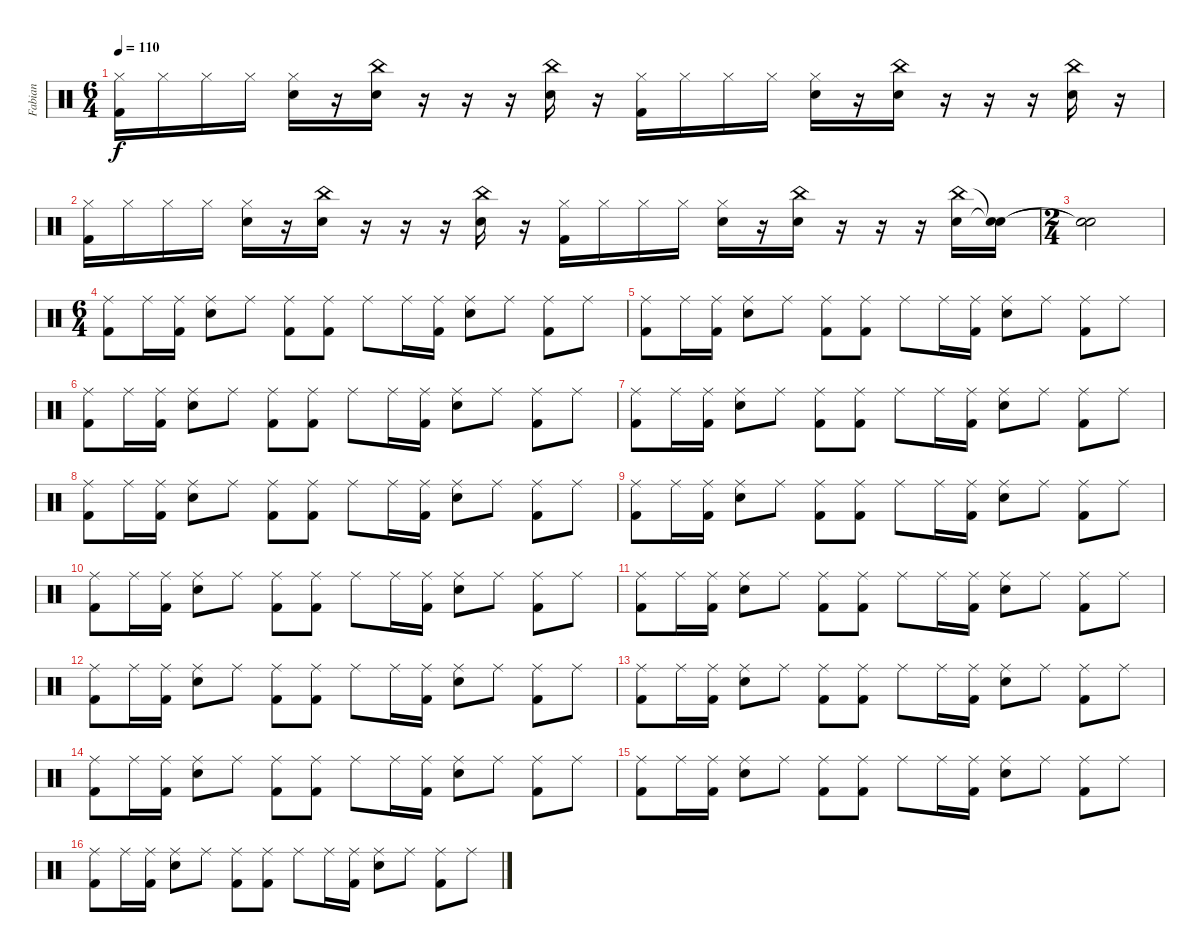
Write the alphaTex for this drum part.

\track ("Fabian" "Fabian") {instrument percussion}
\staff {score}
\articulation defaults
\ts (6 4)
\tempo 110
\clef neutral
\ks c
("Hi-Hat (closed)" "Kick (hit) 2").16{dy f} "Hi-Hat (closed)".16 "Hi-Hat (closed)".16 "Hi-Hat (closed)".16 ("Hi-Hat (closed)" "Snare (hit) 2").16 r.16 ("China (hit)" "Snare (hit) 2").16 r.16 r.16 r.16 ("China (hit)" "Snare (hit) 2").16 r.16 ("Hi-Hat (closed)" "Kick (hit) 2").16 "Hi-Hat (closed)".16 "Hi-Hat (closed)".16 "Hi-Hat (closed)".16 ("Hi-Hat (closed)" "Snare (hit) 2").16 r.16 ("China (hit)" "Snare (hit) 2").16 r.16 r.16 r.16 ("China (hit)" "Snare (hit) 2").16 r.16 |
("Hi-Hat (closed)" "Kick (hit) 2").16 "Hi-Hat (closed)".16 "Hi-Hat (closed)".16 "Hi-Hat (closed)".16 ("Hi-Hat (closed)" "Snare (hit) 2").16 r.16 ("China (hit)" "Snare (hit) 2").16 r.16 r.16 r.16 ("China (hit)" "Snare (hit) 2").16 r.16 ("Hi-Hat (closed)" "Kick (hit) 2").16 "Hi-Hat (closed)".16 "Hi-Hat (closed)".16 "Hi-Hat (closed)".16 ("Hi-Hat (closed)" "Snare (hit) 2").16 r.16 ("China (hit)" "Snare (hit) 2").16 r.16 r.16 r.16 ("China (hit)" "Snare (hit) 2").16 ("Snare (hit)"{t} "Snare (hit)"{t}).16 |
\ts (2 4)
("Snare (hit)"{t} "Snare (hit)"{t}).2 |
\ts (6 4)
("Ride (middle)" "Kick (hit) 2").8 "Ride (middle)".16 ("Ride (middle)" "Kick (hit) 2").16 ("Ride (middle)" "Snare (hit) 2").8 "Ride (middle)".8 ("Ride (middle)" "Kick (hit) 2").8 ("Ride (middle)" "Kick (hit) 2").8 "Ride (middle)".8 "Ride (middle)".16 ("Ride (middle)" "Kick (hit) 2").16 ("Ride (middle)" "Snare (hit) 2").8 "Ride (middle)".8 ("Ride (middle)" "Kick (hit) 2").8 "Ride (middle)".8 |
("Ride (middle)" "Kick (hit) 2").8 "Ride (middle)".16 ("Ride (middle)" "Kick (hit) 2").16 ("Ride (middle)" "Snare (hit) 2").8 "Ride (middle)".8 ("Ride (middle)" "Kick (hit) 2").8 ("Ride (middle)" "Kick (hit) 2").8 "Ride (middle)".8 "Ride (middle)".16 ("Ride (middle)" "Kick (hit) 2").16 ("Ride (middle)" "Snare (hit) 2").8 "Ride (middle)".8 ("Ride (middle)" "Kick (hit) 2").8 "Ride (middle)".8 |
("Ride (middle)" "Kick (hit) 2").8 "Ride (middle)".16 ("Ride (middle)" "Kick (hit) 2").16 ("Ride (middle)" "Snare (hit) 2").8 "Ride (middle)".8 ("Ride (middle)" "Kick (hit) 2").8 ("Ride (middle)" "Kick (hit) 2").8 "Ride (middle)".8 "Ride (middle)".16 ("Ride (middle)" "Kick (hit) 2").16 ("Ride (middle)" "Snare (hit) 2").8 "Ride (middle)".8 ("Ride (middle)" "Kick (hit) 2").8 "Ride (middle)".8 |
("Ride (middle)" "Kick (hit) 2").8 "Ride (middle)".16 ("Ride (middle)" "Kick (hit) 2").16 ("Ride (middle)" "Snare (hit) 2").8 "Ride (middle)".8 ("Ride (middle)" "Kick (hit) 2").8 ("Ride (middle)" "Kick (hit) 2").8 "Ride (middle)".8 "Ride (middle)".16 ("Ride (middle)" "Kick (hit) 2").16 ("Ride (middle)" "Snare (hit) 2").8 "Ride (middle)".8 ("Ride (middle)" "Kick (hit) 2").8 "Ride (middle)".8 |
("Ride (middle)" "Kick (hit) 2").8 "Ride (middle)".16 ("Ride (middle)" "Kick (hit) 2").16 ("Ride (middle)" "Snare (hit) 2").8 "Ride (middle)".8 ("Ride (middle)" "Kick (hit) 2").8 ("Ride (middle)" "Kick (hit) 2").8 "Ride (middle)".8 "Ride (middle)".16 ("Ride (middle)" "Kick (hit) 2").16 ("Ride (middle)" "Snare (hit) 2").8 "Ride (middle)".8 ("Ride (middle)" "Kick (hit) 2").8 "Ride (middle)".8 |
("Ride (middle)" "Kick (hit) 2").8 "Ride (middle)".16 ("Ride (middle)" "Kick (hit) 2").16 ("Ride (middle)" "Snare (hit) 2").8 "Ride (middle)".8 ("Ride (middle)" "Kick (hit) 2").8 ("Ride (middle)" "Kick (hit) 2").8 "Ride (middle)".8 "Ride (middle)".16 ("Ride (middle)" "Kick (hit) 2").16 ("Ride (middle)" "Snare (hit) 2").8 "Ride (middle)".8 ("Ride (middle)" "Kick (hit) 2").8 "Ride (middle)".8 |
("Ride (middle)" "Kick (hit) 2").8 "Ride (middle)".16 ("Ride (middle)" "Kick (hit) 2").16 ("Ride (middle)" "Snare (hit) 2").8 "Ride (middle)".8 ("Ride (middle)" "Kick (hit) 2").8 ("Ride (middle)" "Kick (hit) 2").8 "Ride (middle)".8 "Ride (middle)".16 ("Ride (middle)" "Kick (hit) 2").16 ("Ride (middle)" "Snare (hit) 2").8 "Ride (middle)".8 ("Ride (middle)" "Kick (hit) 2").8 "Ride (middle)".8 |
("Ride (middle)" "Kick (hit) 2").8 "Ride (middle)".16 ("Ride (middle)" "Kick (hit) 2").16 ("Ride (middle)" "Snare (hit) 2").8 "Ride (middle)".8 ("Ride (middle)" "Kick (hit) 2").8 ("Ride (middle)" "Kick (hit) 2").8 "Ride (middle)".8 "Ride (middle)".16 ("Ride (middle)" "Kick (hit) 2").16 ("Ride (middle)" "Snare (hit) 2").8 "Ride (middle)".8 ("Ride (middle)" "Kick (hit) 2").8 "Ride (middle)".8 |
("Ride (middle)" "Kick (hit) 2").8 "Ride (middle)".16 ("Ride (middle)" "Kick (hit) 2").16 ("Ride (middle)" "Snare (hit) 2").8 "Ride (middle)".8 ("Ride (middle)" "Kick (hit) 2").8 ("Ride (middle)" "Kick (hit) 2").8 "Ride (middle)".8 "Ride (middle)".16 ("Ride (middle)" "Kick (hit) 2").16 ("Ride (middle)" "Snare (hit) 2").8 "Ride (middle)".8 ("Ride (middle)" "Kick (hit) 2").8 "Ride (middle)".8 |
("Ride (middle)" "Kick (hit) 2").8 "Ride (middle)".16 ("Ride (middle)" "Kick (hit) 2").16 ("Ride (middle)" "Snare (hit) 2").8 "Ride (middle)".8 ("Ride (middle)" "Kick (hit) 2").8 ("Ride (middle)" "Kick (hit) 2").8 "Ride (middle)".8 "Ride (middle)".16 ("Ride (middle)" "Kick (hit) 2").16 ("Ride (middle)" "Snare (hit) 2").8 "Ride (middle)".8 ("Ride (middle)" "Kick (hit) 2").8 "Ride (middle)".8 |
("Ride (middle)" "Kick (hit) 2").8 "Ride (middle)".16 ("Ride (middle)" "Kick (hit) 2").16 ("Ride (middle)" "Snare (hit) 2").8 "Ride (middle)".8 ("Ride (middle)" "Kick (hit) 2").8 ("Ride (middle)" "Kick (hit) 2").8 "Ride (middle)".8 "Ride (middle)".16 ("Ride (middle)" "Kick (hit) 2").16 ("Ride (middle)" "Snare (hit) 2").8 "Ride (middle)".8 ("Ride (middle)" "Kick (hit) 2").8 "Ride (middle)".8 |
("Ride (middle)" "Kick (hit) 2").8 "Ride (middle)".16 ("Ride (middle)" "Kick (hit) 2").16 ("Ride (middle)" "Snare (hit) 2").8 "Ride (middle)".8 ("Ride (middle)" "Kick (hit) 2").8 ("Ride (middle)" "Kick (hit) 2").8 "Ride (middle)".8 "Ride (middle)".16 ("Ride (middle)" "Kick (hit) 2").16 ("Ride (middle)" "Snare (hit) 2").8 "Ride (middle)".8 ("Ride (middle)" "Kick (hit) 2").8 "Ride (middle)".8 |
("Ride (middle)" "Kick (hit) 2").8 "Ride (middle)".16 ("Ride (middle)" "Kick (hit) 2").16 ("Ride (middle)" "Snare (hit) 2").8 "Ride (middle)".8 ("Ride (middle)" "Kick (hit) 2").8 ("Ride (middle)" "Kick (hit) 2").8 "Ride (middle)".8 "Ride (middle)".16 ("Ride (middle)" "Kick (hit) 2").16 ("Ride (middle)" "Snare (hit) 2").8 "Ride (middle)".8 ("Ride (middle)" "Kick (hit) 2").8 "Ride (middle)".8
